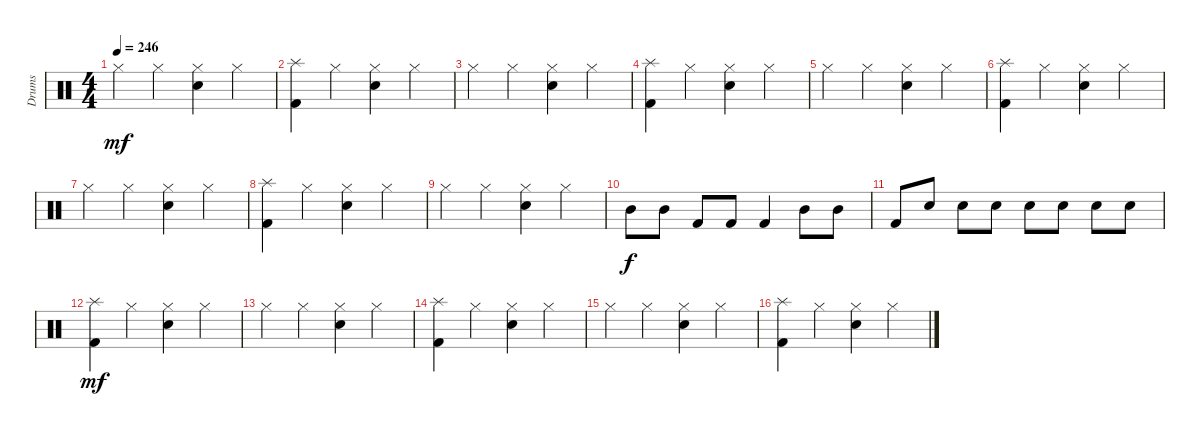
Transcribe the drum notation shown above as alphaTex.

\track ("Drums" "Drums") {instrument percussion}
\staff {score}
\articulation defaults
\ts (4 4)
\tempo 246
\clef neutral
\ks c "Hi-Hat (closed)".4{dy mf} "Hi-Hat (closed)".4
("Hi-Hat (closed)" "Snare (hit) 2").4 "Hi-Hat (closed)".4 |
("Splash (hit)" "Kick (hit) 2").4 "Hi-Hat (closed)".4 ("Hi-Hat (closed)" "Snare (hit) 2").4 "Hi-Hat (closed)".4 |
"Hi-Hat (closed)".4 "Hi-Hat (closed)".4 ("Hi-Hat (closed)" "Snare (hit) 2").4 "Hi-Hat (closed)".4 |
("Splash (hit)" "Kick (hit) 2").4 "Hi-Hat (closed)".4 ("Hi-Hat (closed)" "Snare (hit) 2").4 "Hi-Hat (closed)".4 |
"Hi-Hat (closed)".4 "Hi-Hat (closed)".4 ("Hi-Hat (closed)" "Snare (hit) 2").4 "Hi-Hat (closed)".4 |
("Splash (hit)" "Kick (hit) 2").4 "Hi-Hat (closed)".4 ("Hi-Hat (closed)" "Snare (hit) 2").4 "Hi-Hat (closed)".4 |
"Hi-Hat (closed)".4 "Hi-Hat (closed)".4 ("Hi-Hat (closed)" "Snare (hit) 2").4 "Hi-Hat (closed)".4 |
("Splash (hit)" "Kick (hit) 2").4 "Hi-Hat (closed)".4 ("Hi-Hat (closed)" "Snare (hit) 2").4 "Hi-Hat (closed)".4 |
"Hi-Hat (closed)".4 "Hi-Hat (closed)".4 ("Hi-Hat (closed)" "Snare (hit) 2").4 "Hi-Hat (closed)".4 |
"Mid Tom (hit)".8{dy f} "Mid Tom (hit)".8 "Kick (hit) 2".8 "Kick (hit) 2".8 "Kick (hit) 2".4 "Mid Tom (hit)".8 "Mid Tom (hit)".8 |
"Kick (hit) 2".8 "Snare (hit) 2".8 "Snare (hit) 2".8 "Snare (hit) 2".8 "Snare (hit) 2".8 "Snare (hit) 2".8 "Snare (hit) 2".8 "Snare (hit) 2".8 |
("Splash (hit)" "Kick (hit) 2").4{dy mf} "Hi-Hat (closed)".4 ("Hi-Hat (closed)" "Snare (hit) 2").4 "Hi-Hat (closed)".4 |
"Hi-Hat (closed)".4 "Hi-Hat (closed)".4 ("Hi-Hat (closed)" "Snare (hit) 2").4 "Hi-Hat (closed)".4 |
("Splash (hit)" "Kick (hit) 2").4 "Hi-Hat (closed)".4 ("Hi-Hat (closed)" "Snare (hit) 2").4 "Hi-Hat (closed)".4 |
"Hi-Hat (closed)".4 "Hi-Hat (closed)".4 ("Hi-Hat (closed)" "Snare (hit) 2").4 "Hi-Hat (closed)".4 |
("Splash (hit)" "Kick (hit) 2").4 "Hi-Hat (closed)".4 ("Hi-Hat (closed)" "Snare (hit) 2").4 "Hi-Hat (closed)".4
